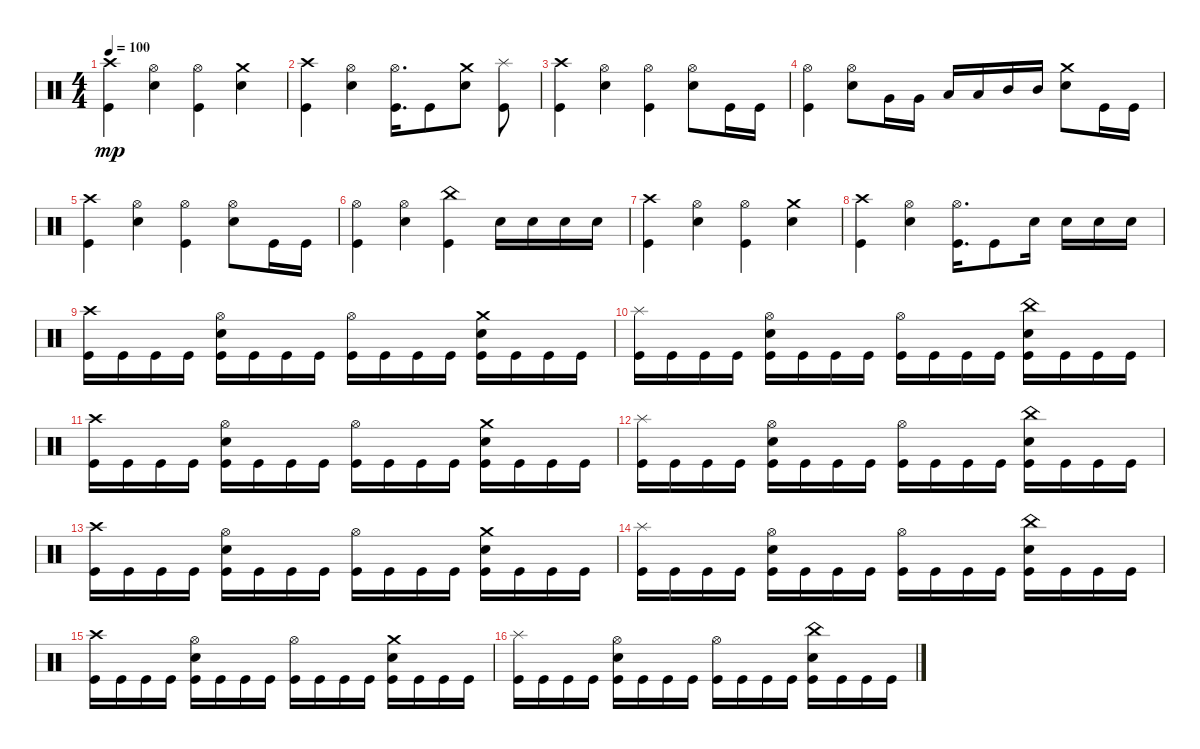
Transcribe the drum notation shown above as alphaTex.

\track "" {instrument percussion}
\staff {score}
\articulation defaults
\ts (4 4)
\tempo 100
\clef neutral
\ks c
("Crash high (hit)" "Kick (hit)").4{dy mp} ("Snare (hit) 2" "Hi-Hat (open)").4 ("Kick (hit)" "Hi-Hat (open)").4 ("Snare (hit) 2" "Crash medium (hit)").4 |
("Crash high (hit)" "Kick (hit)").4 ("Snare (hit) 2" "Hi-Hat (open)").4 ("Kick (hit)" "Hi-Hat (open)").16{d} "Kick (hit)".8 ("Snare (hit) 2" "Crash medium (hit)").8 ("Splash (hit)" "Kick (hit)").8 |
("Crash high (hit)" "Kick (hit)").4 ("Hi-Hat (open)" "Snare (hit) 2").4 ("Hi-Hat (open)" "Kick (hit)").4 ("Hi-Hat (open)" "Snare (hit) 2").8 "Kick (hit)".16 "Kick (hit)".16 |
("Kick (hit)" "Hi-Hat (open)").4 ("Hi-Hat (open)" "Snare (hit) 2").8 "Very Low Tom (hit)".16 "Very Low Tom (hit)".16 "Low Tom (hit)".16 "Low Tom (hit)".16 "Mid Tom (hit)".16 "Mid Tom (hit)".16 ("Crash medium (hit)" "Snare (hit) 2").8 "Kick (hit)".16 "Kick (hit)".16 |
("Crash high (hit)" "Kick (hit)").4 ("Hi-Hat (open)" "Snare (hit) 2").4 ("Hi-Hat (open)" "Kick (hit)").4 ("Hi-Hat (open)" "Snare (hit) 2").8 "Kick (hit)".16 "Kick (hit)".16 |
("Kick (hit)" "Hi-Hat (open)").4 ("Hi-Hat (open)" "Snare (hit) 2").4 ("Kick (hit)" "China (hit)").4 "Snare (hit) 2".16 "Snare (hit) 2".16 "Snare (hit) 2".16 "Snare (hit) 2".16 |
("Crash high (hit)" "Kick (hit)").4 ("Snare (hit) 2" "Hi-Hat (open)").4 ("Kick (hit)" "Hi-Hat (open)").4 ("Snare (hit) 2" "Crash medium (hit)").4 |
("Crash high (hit)" "Kick (hit)").4 ("Snare (hit) 2" "Hi-Hat (open)").4 ("Kick (hit)" "Hi-Hat (open)").16{d} "Kick (hit)".8 "Snare (hit) 2".16 "Snare (hit) 2".16 "Snare (hit) 2".16 "Snare (hit) 2".16 |
("Kick (hit)" "Crash high (hit)").16 "Kick (hit)".16 "Kick (hit)".16 "Kick (hit)".16 ("Kick (hit)" "Snare (hit) 2" "Hi-Hat (open)").16 "Kick (hit)".16 "Kick (hit)".16 "Kick (hit)".16 ("Kick (hit)" "Hi-Hat (open)").16 "Kick (hit)".16 "Kick (hit)".16 "Kick (hit)".16 ("Kick (hit)" "Snare (hit) 2" "Crash medium (hit)").16 "Kick (hit)".16 "Kick (hit)".16 "Kick (hit)".16 |
("Kick (hit)" "Splash (hit)").16 "Kick (hit)".16 "Kick (hit)".16 "Kick (hit)".16 ("Kick (hit)" "Snare (hit) 2" "Hi-Hat (open)").16 "Kick (hit)".16 "Kick (hit)".16 "Kick (hit)".16 ("Kick (hit)" "Hi-Hat (open)").16 "Kick (hit)".16 "Kick (hit)".16 "Kick (hit)".16 ("Kick (hit)" "Snare (hit) 2" "China (hit)").16 "Kick (hit)".16 "Kick (hit)".16 "Kick (hit)".16 |
("Kick (hit)" "Crash high (hit)").16 "Kick (hit)".16 "Kick (hit)".16 "Kick (hit)".16 ("Kick (hit)" "Snare (hit) 2" "Hi-Hat (open)").16 "Kick (hit)".16 "Kick (hit)".16 "Kick (hit)".16 ("Kick (hit)" "Hi-Hat (open)").16 "Kick (hit)".16 "Kick (hit)".16 "Kick (hit)".16 ("Kick (hit)" "Snare (hit) 2" "Crash medium (hit)").16 "Kick (hit)".16 "Kick (hit)".16 "Kick (hit)".16 |
("Kick (hit)" "Splash (hit)").16 "Kick (hit)".16 "Kick (hit)".16 "Kick (hit)".16 ("Kick (hit)" "Snare (hit) 2" "Hi-Hat (open)").16 "Kick (hit)".16 "Kick (hit)".16 "Kick (hit)".16 ("Kick (hit)" "Hi-Hat (open)").16 "Kick (hit)".16 "Kick (hit)".16 "Kick (hit)".16 ("Kick (hit)" "Snare (hit) 2" "China (hit)").16 "Kick (hit)".16 "Kick (hit)".16 "Kick (hit)".16 |
("Kick (hit)" "Crash high (hit)").16 "Kick (hit)".16 "Kick (hit)".16 "Kick (hit)".16 ("Kick (hit)" "Snare (hit) 2" "Hi-Hat (open)").16 "Kick (hit)".16 "Kick (hit)".16 "Kick (hit)".16 ("Kick (hit)" "Hi-Hat (open)").16 "Kick (hit)".16 "Kick (hit)".16 "Kick (hit)".16 ("Kick (hit)" "Snare (hit) 2" "Crash medium (hit)").16 "Kick (hit)".16 "Kick (hit)".16 "Kick (hit)".16 |
("Kick (hit)" "Splash (hit)").16 "Kick (hit)".16 "Kick (hit)".16 "Kick (hit)".16 ("Kick (hit)" "Snare (hit) 2" "Hi-Hat (open)").16 "Kick (hit)".16 "Kick (hit)".16 "Kick (hit)".16 ("Kick (hit)" "Hi-Hat (open)").16 "Kick (hit)".16 "Kick (hit)".16 "Kick (hit)".16 ("Kick (hit)" "Snare (hit) 2" "China (hit)").16 "Kick (hit)".16 "Kick (hit)".16 "Kick (hit)".16 |
("Kick (hit)" "Crash high (hit)").16 "Kick (hit)".16 "Kick (hit)".16 "Kick (hit)".16 ("Kick (hit)" "Snare (hit) 2" "Hi-Hat (open)").16 "Kick (hit)".16 "Kick (hit)".16 "Kick (hit)".16 ("Kick (hit)" "Hi-Hat (open)").16 "Kick (hit)".16 "Kick (hit)".16 "Kick (hit)".16 ("Kick (hit)" "Snare (hit) 2" "Crash medium (hit)").16 "Kick (hit)".16 "Kick (hit)".16 "Kick (hit)".16 |
("Kick (hit)" "Splash (hit)").16 "Kick (hit)".16 "Kick (hit)".16 "Kick (hit)".16 ("Kick (hit)" "Snare (hit) 2" "Hi-Hat (open)").16 "Kick (hit)".16 "Kick (hit)".16 "Kick (hit)".16 ("Kick (hit)" "Hi-Hat (open)").16 "Kick (hit)".16 "Kick (hit)".16 "Kick (hit)".16 ("Kick (hit)" "Snare (hit) 2" "China (hit)").16 "Kick (hit)".16 "Kick (hit)".16 "Kick (hit)".16
